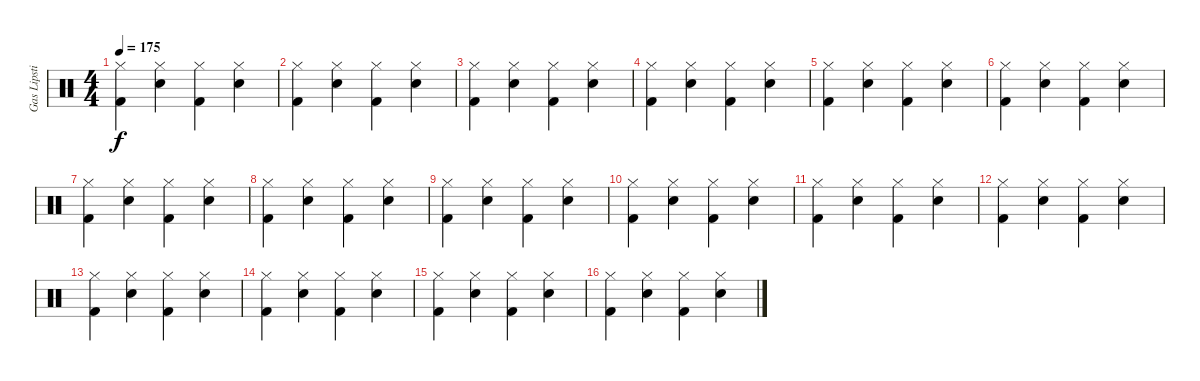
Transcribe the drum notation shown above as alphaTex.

\track ("Gas Lipstick" "Gas Lipsti") {instrument percussion}
\staff {score}
\articulation defaults
\ts (4 4)
\tempo 175
\clef neutral
\ks c
("Kick (hit) 2" "Hi-Hat (closed)").4{dy f} ("Snare (hit) 2" "Hi-Hat (closed)").4 ("Kick (hit) 2" "Hi-Hat (closed)").4 ("Snare (hit) 2" "Hi-Hat (closed)").4 |
("Kick (hit) 2" "Hi-Hat (closed)").4 ("Snare (hit) 2" "Hi-Hat (closed)").4 ("Kick (hit) 2" "Hi-Hat (closed)").4 ("Snare (hit) 2" "Hi-Hat (closed)").4 |
("Kick (hit) 2" "Hi-Hat (closed)").4 ("Snare (hit) 2" "Hi-Hat (closed)").4 ("Kick (hit) 2" "Hi-Hat (closed)").4 ("Snare (hit) 2" "Hi-Hat (closed)").4 |
("Kick (hit) 2" "Hi-Hat (closed)").4 ("Snare (hit) 2" "Hi-Hat (closed)").4 ("Kick (hit) 2" "Hi-Hat (closed)").4 ("Snare (hit) 2" "Hi-Hat (closed)").4 |
("Kick (hit) 2" "Hi-Hat (closed)").4 ("Snare (hit) 2" "Hi-Hat (closed)").4 ("Kick (hit) 2" "Hi-Hat (closed)").4 ("Snare (hit) 2" "Hi-Hat (closed)").4 |
("Kick (hit) 2" "Hi-Hat (closed)").4 ("Snare (hit) 2" "Hi-Hat (closed)").4 ("Kick (hit) 2" "Hi-Hat (closed)").4 ("Snare (hit) 2" "Hi-Hat (closed)").4 |
("Kick (hit) 2" "Hi-Hat (closed)").4 ("Snare (hit) 2" "Hi-Hat (closed)").4 ("Kick (hit) 2" "Hi-Hat (closed)").4 ("Snare (hit) 2" "Hi-Hat (closed)").4 |
("Kick (hit) 2" "Hi-Hat (closed)").4 ("Snare (hit) 2" "Hi-Hat (closed)").4 ("Kick (hit) 2" "Hi-Hat (closed)").4 ("Snare (hit) 2" "Hi-Hat (closed)").4 |
("Kick (hit) 2" "Hi-Hat (closed)").4 ("Snare (hit) 2" "Hi-Hat (closed)").4 ("Kick (hit) 2" "Hi-Hat (closed)").4 ("Snare (hit) 2" "Hi-Hat (closed)").4 |
("Kick (hit) 2" "Hi-Hat (closed)").4 ("Snare (hit) 2" "Hi-Hat (closed)").4 ("Kick (hit) 2" "Hi-Hat (closed)").4 ("Snare (hit) 2" "Hi-Hat (closed)").4 |
("Kick (hit) 2" "Hi-Hat (closed)").4 ("Snare (hit) 2" "Hi-Hat (closed)").4 ("Kick (hit) 2" "Hi-Hat (closed)").4 ("Snare (hit) 2" "Hi-Hat (closed)").4 |
("Kick (hit) 2" "Hi-Hat (closed)").4 ("Snare (hit) 2" "Hi-Hat (closed)").4 ("Kick (hit) 2" "Hi-Hat (closed)").4 ("Snare (hit) 2" "Hi-Hat (closed)").4 |
("Kick (hit) 2" "Hi-Hat (closed)").4 ("Snare (hit) 2" "Hi-Hat (closed)").4 ("Kick (hit) 2" "Hi-Hat (closed)").4 ("Snare (hit) 2" "Hi-Hat (closed)").4 |
("Kick (hit) 2" "Hi-Hat (closed)").4 ("Snare (hit) 2" "Hi-Hat (closed)").4 ("Kick (hit) 2" "Hi-Hat (closed)").4 ("Snare (hit) 2" "Hi-Hat (closed)").4 |
("Kick (hit) 2" "Hi-Hat (closed)").4 ("Snare (hit) 2" "Hi-Hat (closed)").4 ("Kick (hit) 2" "Hi-Hat (closed)").4 ("Snare (hit) 2" "Hi-Hat (closed)").4 |
("Kick (hit) 2" "Hi-Hat (closed)").4 ("Snare (hit) 2" "Hi-Hat (closed)").4 ("Kick (hit) 2" "Hi-Hat (closed)").4 ("Snare (hit) 2" "Hi-Hat (closed)").4
